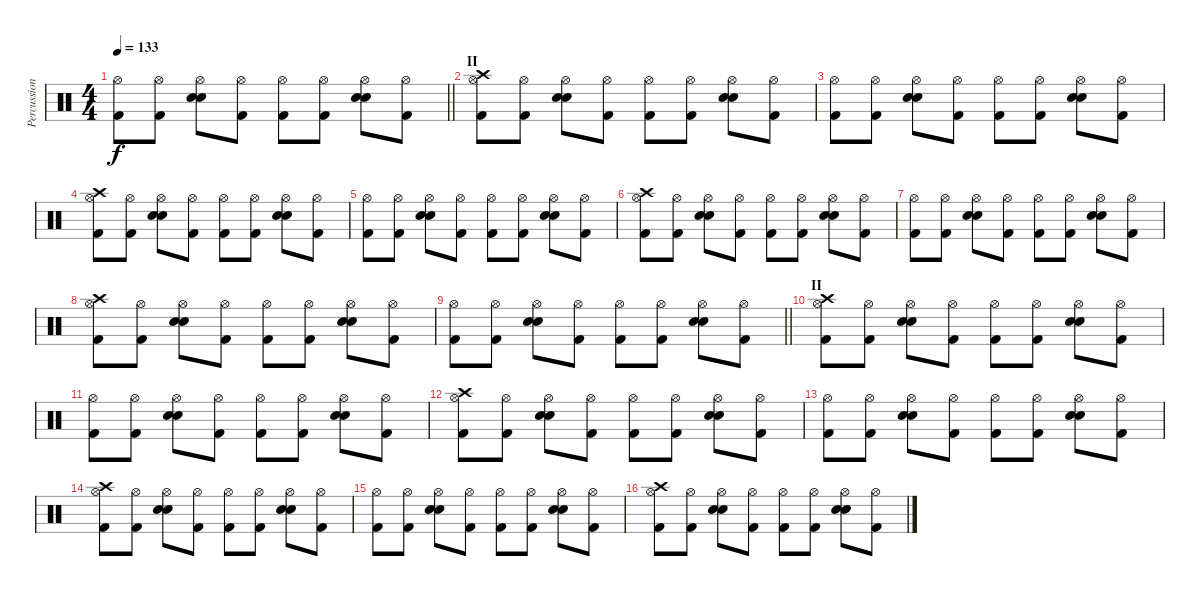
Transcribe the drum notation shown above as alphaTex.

\track ("Percussion" "Percussion") {instrument percussion}
\staff {score}
\articulation defaults
\ts (4 4)
\tempo 133
\clef neutral
\barLineRight lightlight
\ks c
("Kick (hit) 2" "Hi-Hat (open)").8{dy f} ("Kick (hit) 2" "Hi-Hat (open)").8 ("Electric Snare (hit)" "Snare (hit) 2" "Hi-Hat (open)").8 ("Kick (hit) 2" "Hi-Hat (open)").8 ("Kick (hit) 2" "Hi-Hat (open)").8 ("Kick (hit) 2" "Hi-Hat (open)").8 ("Electric Snare (hit)" "Snare (hit) 2" "Hi-Hat (open)").8 ("Kick (hit) 2" "Hi-Hat (open)").8 |
\section ("" "II")
("Crash high (hit)" "Kick (hit) 2" "Hi-Hat (open)").8 ("Kick (hit) 2" "Hi-Hat (open)").8 ("Electric Snare (hit)" "Snare (hit) 2" "Hi-Hat (open)").8 ("Kick (hit) 2" "Hi-Hat (open)").8 ("Kick (hit) 2" "Hi-Hat (open)").8 ("Kick (hit) 2" "Hi-Hat (open)").8 ("Electric Snare (hit)" "Snare (hit) 2" "Hi-Hat (open)").8 ("Kick (hit) 2" "Hi-Hat (open)").8 |
("Kick (hit) 2" "Hi-Hat (open)").8 ("Kick (hit) 2" "Hi-Hat (open)").8 ("Electric Snare (hit)" "Snare (hit) 2" "Hi-Hat (open)").8 ("Kick (hit) 2" "Hi-Hat (open)").8 ("Kick (hit) 2" "Hi-Hat (open)").8 ("Kick (hit) 2" "Hi-Hat (open)").8 ("Electric Snare (hit)" "Snare (hit) 2" "Hi-Hat (open)").8 ("Kick (hit) 2" "Hi-Hat (open)").8 |
("Crash high (hit)" "Kick (hit) 2" "Hi-Hat (open)").8 ("Kick (hit) 2" "Hi-Hat (open)").8 ("Electric Snare (hit)" "Snare (hit) 2" "Hi-Hat (open)").8 ("Kick (hit) 2" "Hi-Hat (open)").8 ("Kick (hit) 2" "Hi-Hat (open)").8 ("Kick (hit) 2" "Hi-Hat (open)").8 ("Electric Snare (hit)" "Snare (hit) 2" "Hi-Hat (open)").8 ("Kick (hit) 2" "Hi-Hat (open)").8 |
("Kick (hit) 2" "Hi-Hat (open)").8 ("Kick (hit) 2" "Hi-Hat (open)").8 ("Electric Snare (hit)" "Snare (hit) 2" "Hi-Hat (open)").8 ("Kick (hit) 2" "Hi-Hat (open)").8 ("Kick (hit) 2" "Hi-Hat (open)").8 ("Kick (hit) 2" "Hi-Hat (open)").8 ("Electric Snare (hit)" "Snare (hit) 2" "Hi-Hat (open)").8 ("Kick (hit) 2" "Hi-Hat (open)").8 |
("Crash high (hit)" "Kick (hit) 2" "Hi-Hat (open)").8 ("Kick (hit) 2" "Hi-Hat (open)").8 ("Electric Snare (hit)" "Snare (hit) 2" "Hi-Hat (open)").8 ("Kick (hit) 2" "Hi-Hat (open)").8 ("Kick (hit) 2" "Hi-Hat (open)").8 ("Kick (hit) 2" "Hi-Hat (open)").8 ("Electric Snare (hit)" "Snare (hit) 2" "Hi-Hat (open)").8 ("Kick (hit) 2" "Hi-Hat (open)").8 |
("Kick (hit) 2" "Hi-Hat (open)").8 ("Kick (hit) 2" "Hi-Hat (open)").8 ("Electric Snare (hit)" "Snare (hit) 2" "Hi-Hat (open)").8 ("Kick (hit) 2" "Hi-Hat (open)").8 ("Kick (hit) 2" "Hi-Hat (open)").8 ("Kick (hit) 2" "Hi-Hat (open)").8 ("Electric Snare (hit)" "Snare (hit) 2" "Hi-Hat (open)").8 ("Kick (hit) 2" "Hi-Hat (open)").8 |
("Crash high (hit)" "Kick (hit) 2" "Hi-Hat (open)").8 ("Kick (hit) 2" "Hi-Hat (open)").8 ("Electric Snare (hit)" "Snare (hit) 2" "Hi-Hat (open)").8 ("Kick (hit) 2" "Hi-Hat (open)").8 ("Kick (hit) 2" "Hi-Hat (open)").8 ("Kick (hit) 2" "Hi-Hat (open)").8 ("Electric Snare (hit)" "Snare (hit) 2" "Hi-Hat (open)").8 ("Kick (hit) 2" "Hi-Hat (open)").8 |
\barLineRight lightlight
("Kick (hit) 2" "Hi-Hat (open)").8 ("Kick (hit) 2" "Hi-Hat (open)").8 ("Electric Snare (hit)" "Snare (hit) 2" "Hi-Hat (open)").8 ("Kick (hit) 2" "Hi-Hat (open)").8 ("Kick (hit) 2" "Hi-Hat (open)").8 ("Kick (hit) 2" "Hi-Hat (open)").8 ("Electric Snare (hit)" "Snare (hit) 2" "Hi-Hat (open)").8 ("Kick (hit) 2" "Hi-Hat (open)").8 |
\section ("" "II")
("Crash high (hit)" "Kick (hit) 2" "Hi-Hat (open)").8 ("Kick (hit) 2" "Hi-Hat (open)").8 ("Electric Snare (hit)" "Snare (hit) 2" "Hi-Hat (open)").8 ("Kick (hit) 2" "Hi-Hat (open)").8 ("Kick (hit) 2" "Hi-Hat (open)").8 ("Kick (hit) 2" "Hi-Hat (open)").8 ("Electric Snare (hit)" "Snare (hit) 2" "Hi-Hat (open)").8 ("Kick (hit) 2" "Hi-Hat (open)").8 |
("Kick (hit) 2" "Hi-Hat (open)").8 ("Kick (hit) 2" "Hi-Hat (open)").8 ("Electric Snare (hit)" "Snare (hit) 2" "Hi-Hat (open)").8 ("Kick (hit) 2" "Hi-Hat (open)").8 ("Kick (hit) 2" "Hi-Hat (open)").8 ("Kick (hit) 2" "Hi-Hat (open)").8 ("Electric Snare (hit)" "Snare (hit) 2" "Hi-Hat (open)").8 ("Kick (hit) 2" "Hi-Hat (open)").8 |
("Crash high (hit)" "Kick (hit) 2" "Hi-Hat (open)").8 ("Kick (hit) 2" "Hi-Hat (open)").8 ("Electric Snare (hit)" "Snare (hit) 2" "Hi-Hat (open)").8 ("Kick (hit) 2" "Hi-Hat (open)").8 ("Kick (hit) 2" "Hi-Hat (open)").8 ("Kick (hit) 2" "Hi-Hat (open)").8 ("Electric Snare (hit)" "Snare (hit) 2" "Hi-Hat (open)").8 ("Kick (hit) 2" "Hi-Hat (open)").8 |
("Kick (hit) 2" "Hi-Hat (open)").8 ("Kick (hit) 2" "Hi-Hat (open)").8 ("Electric Snare (hit)" "Snare (hit) 2" "Hi-Hat (open)").8 ("Kick (hit) 2" "Hi-Hat (open)").8 ("Kick (hit) 2" "Hi-Hat (open)").8 ("Kick (hit) 2" "Hi-Hat (open)").8 ("Electric Snare (hit)" "Snare (hit) 2" "Hi-Hat (open)").8 ("Kick (hit) 2" "Hi-Hat (open)").8 |
("Crash high (hit)" "Kick (hit) 2" "Hi-Hat (open)").8 ("Kick (hit) 2" "Hi-Hat (open)").8 ("Electric Snare (hit)" "Snare (hit) 2" "Hi-Hat (open)").8 ("Kick (hit) 2" "Hi-Hat (open)").8 ("Kick (hit) 2" "Hi-Hat (open)").8 ("Kick (hit) 2" "Hi-Hat (open)").8 ("Electric Snare (hit)" "Snare (hit) 2" "Hi-Hat (open)").8 ("Kick (hit) 2" "Hi-Hat (open)").8 |
("Kick (hit) 2" "Hi-Hat (open)").8 ("Kick (hit) 2" "Hi-Hat (open)").8 ("Electric Snare (hit)" "Snare (hit) 2" "Hi-Hat (open)").8 ("Kick (hit) 2" "Hi-Hat (open)").8 ("Kick (hit) 2" "Hi-Hat (open)").8 ("Kick (hit) 2" "Hi-Hat (open)").8 ("Electric Snare (hit)" "Snare (hit) 2" "Hi-Hat (open)").8 ("Kick (hit) 2" "Hi-Hat (open)").8 |
("Crash high (hit)" "Kick (hit) 2" "Hi-Hat (open)").8 ("Kick (hit) 2" "Hi-Hat (open)").8 ("Electric Snare (hit)" "Snare (hit) 2" "Hi-Hat (open)").8 ("Kick (hit) 2" "Hi-Hat (open)").8 ("Kick (hit) 2" "Hi-Hat (open)").8 ("Kick (hit) 2" "Hi-Hat (open)").8 ("Electric Snare (hit)" "Snare (hit) 2" "Hi-Hat (open)").8 ("Kick (hit) 2" "Hi-Hat (open)").8
